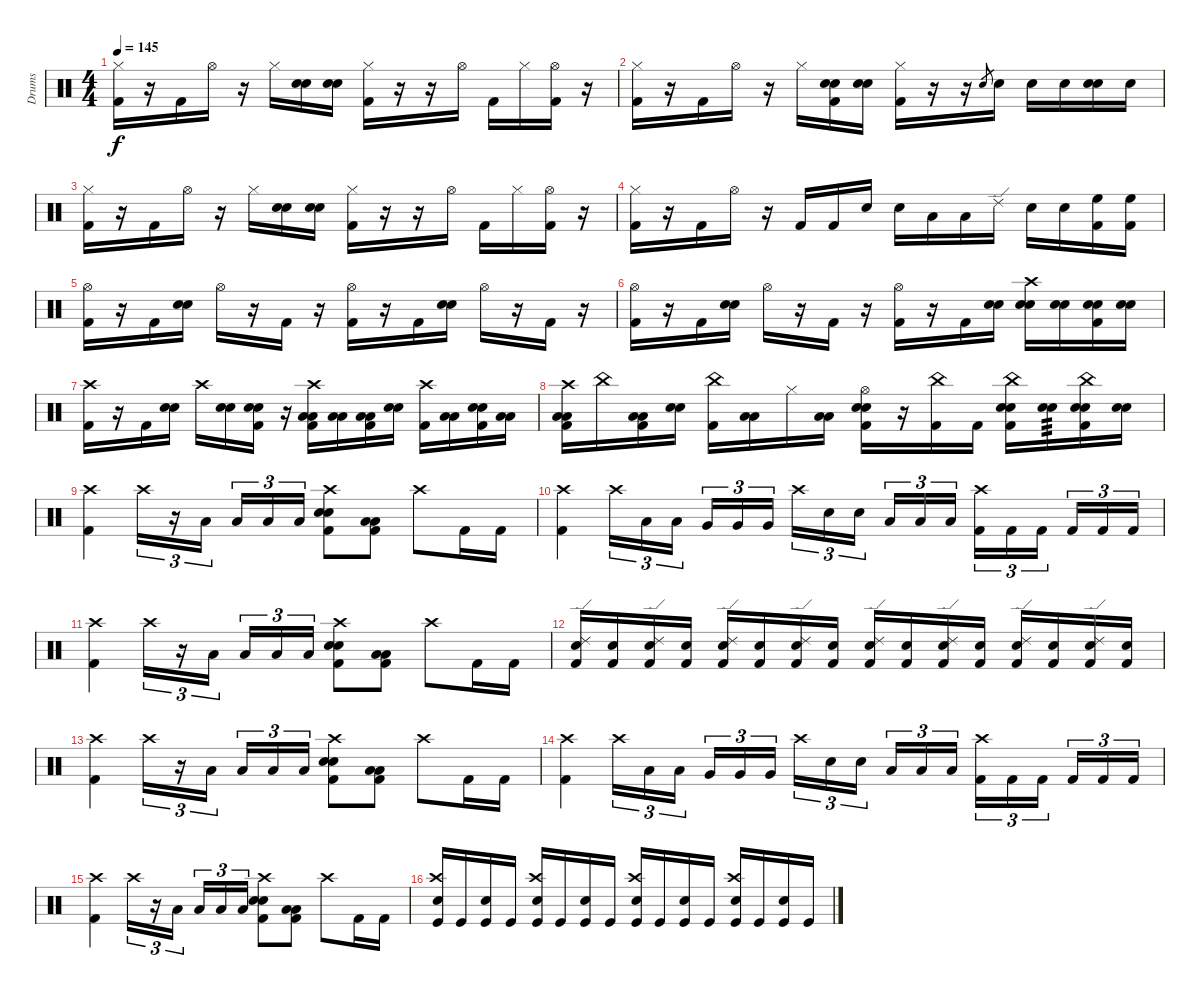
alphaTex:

\track ("Drums" "Drums") {instrument percussion}
\staff {score}
\articulation defaults
\ts (4 4)
\tempo 145
\clef neutral
\ks c
("Hi-Hat (closed)" "Kick (hit) 2").16{dy f} r.16 "Kick (hit) 2".16 "Hi-Hat (open)".16 r.16 "Hi-Hat (closed)".16 ("Electric Snare (hit)" "Electric Snare (hit)").16 ("Electric Snare (hit)" "Electric Snare (hit)").16 ("Hi-Hat (closed)" "Kick (hit) 2").16 r.16 r.16 "Hi-Hat (open)".16 "Kick (hit) 2".16 "Hi-Hat (closed)".16 ("Hi-Hat (open)" "Kick (hit) 2").16 r.16 |
("Hi-Hat (closed)" "Kick (hit) 2").16 r.16 "Kick (hit) 2".16 "Hi-Hat (open)".16 r.16 "Hi-Hat (closed)".16 ("Electric Snare (hit)" "Electric Snare (hit)" "Kick (hit) 2").16 ("Electric Snare (hit)" "Electric Snare (hit)").16 ("Hi-Hat (closed)" "Kick (hit) 2").16 r.16 r.16 "Electric Snare (hit)".8{gr} "Electric Snare (hit)".16 "Electric Snare (hit)".16 "Electric Snare (hit)".16 ("Electric Snare (hit)" "Electric Snare (hit)").16 "Electric Snare (hit)".16 |
("Hi-Hat (closed)" "Kick (hit) 2").16 r.16 "Kick (hit) 2".16 "Hi-Hat (open)".16 r.16 "Hi-Hat (closed)".16 ("Electric Snare (hit)" "Electric Snare (hit)").16 ("Electric Snare (hit)" "Electric Snare (hit)").16 ("Hi-Hat (closed)" "Kick (hit) 2").16 r.16 r.16 "Hi-Hat (open)".16 "Kick (hit) 2".16 "Hi-Hat (closed)".16 ("Hi-Hat (open)" "Kick (hit) 2").16 r.16 |
("Hi-Hat (closed)" "Kick (hit) 2").16 r.16 "Kick (hit) 2".16 "Hi-Hat (open)".16 r.16 "Kick (hit) 2".16 "Kick (hit) 2".16 "Electric Snare (hit)".16 "Electric Snare (hit)".16 "Low Floor Tom (hit)".16 "Low Tom (hit)".16 "Ride (edge) 2".16 "Electric Snare (hit)".16 "Electric Snare (hit)".16 ("High Floor Tom (hit)" "Kick (hit) 2").16 ("High Floor Tom (hit)" "Kick (hit) 2").16 |
("Hi-Hat (open)" "Kick (hit) 2").16 r.16 "Kick (hit) 2".16 ("Electric Snare (hit)" "Electric Snare (hit)").16 "Hi-Hat (open)".16 r.16 "Kick (hit) 2".16 r.16 ("Hi-Hat (open)" "Kick (hit) 2").16 r.16 "Kick (hit) 2".16 ("Electric Snare (hit)" "Electric Snare (hit)").16 "Hi-Hat (open)".16 r.16 "Kick (hit) 2".16 r.16 |
("Hi-Hat (open)" "Kick (hit) 2").16 r.16 "Kick (hit) 2".16 ("Electric Snare (hit)" "Electric Snare (hit)").16 "Hi-Hat (open)".16 r.16 "Kick (hit) 2".16 r.16 ("Hi-Hat (open)" "Kick (hit) 2").16 r.16 "Kick (hit) 2".16 ("Electric Snare (hit)" "Electric Snare (hit)").16 ("Crash high (hit)" "Electric Snare (hit)" "Electric Snare (hit)").16 ("Electric Snare (hit)" "Electric Snare (hit)").16 ("Electric Snare (hit)" "Electric Snare (hit)" "Kick (hit) 2").16 ("Electric Snare (hit)" "Electric Snare (hit)").16 |
("Crash high (hit)" "Kick (hit) 2").16 r.16 "Kick (hit) 2".16 ("Electric Snare (hit)" "Electric Snare (hit)").16 "Crash high (hit)".16 ("Electric Snare (hit)" "Electric Snare (hit)").16 ("Electric Snare (hit)" "Electric Snare (hit)" "Kick (hit) 2").16 r.16 ("Crash high (hit)" "Low Floor Tom (hit)" "Low Floor Tom (hit)" "Kick (hit) 2").16 ("Low Tom (hit)" "Low Tom (hit)").16 ("Low Floor Tom (hit)" "Low Floor Tom (hit)" "Kick (hit) 2").16 ("Electric Snare (hit)" "Electric Snare (hit)").16 ("Crash high (hit)" "Kick (hit) 2").16 ("Low Floor Tom (hit)" "Low Floor Tom (hit)").16 ("Electric Snare (hit)" "Electric Snare (hit)" "Kick (hit) 2").16 ("Low Floor Tom (hit)" "Low Floor Tom (hit)").16 |
("Crash high (hit)" "Low Floor Tom (hit)" "Low Floor Tom (hit)" "Kick (hit) 2").16 "China (hit)".16 ("Low Floor Tom (hit)" "Low Floor Tom (hit)" "Kick (hit) 2").16 ("Electric Snare (hit)" "Electric Snare (hit)").16 ("China (hit)" "Kick (hit) 2").16 ("Low Floor Tom (hit)" "Low Floor Tom (hit)").16 "Hi-Hat (closed)".16 ("Low Floor Tom (hit)" "Low Floor Tom (hit)").16 ("Hi-Hat (open)" "Electric Snare (hit)" "Electric Snare (hit)" "Kick (hit) 2").16 r.16 ("China (hit)" "Kick (hit) 2").16 "Kick (hit) 2".16 ("China (hit)" "Electric Snare (hit)" "Electric Snare (hit)" "Kick (hit) 2").16 ("Electric Snare (hit)" "Electric Snare (hit)").16{tp 3} ("China (hit)" "Electric Snare (hit)" "Electric Snare (hit)" "Kick (hit) 2").16 ("Electric Snare (hit)" "Electric Snare (hit)").16 |
("Crash high (hit)" "Kick (hit) 2").4 "Crash high (hit)".16{tu (3 2)} r.16{tu (3 2)} "Low Tom (hit)".16{tu (3 2) beam splitsecondary} "Low Floor Tom (hit)".16{tu (3 2)} "Low Floor Tom (hit)".16{tu (3 2)} "Low Floor Tom (hit)".16{tu (3 2)} ("Crash high (hit)" "Electric Snare (hit)" "Electric Snare (hit)" "Kick (hit) 2").8 ("Low Floor Tom (hit)" "Low Floor Tom (hit)" "Kick (hit) 2").8 "Crash high (hit)".8 "Kick (hit) 2".16 "Kick (hit) 2".16 |
("Crash high (hit)" "Kick (hit) 2").4 "Crash high (hit)".16{tu (3 2)} "Low Tom (hit)".16{tu (3 2)} "Low Tom (hit)".16{tu (3 2) beam splitsecondary} "Very Low Tom (hit)".16{tu (3 2)} "Very Low Tom (hit)".16{tu (3 2)} "Very Low Tom (hit)".16{tu (3 2)} "Crash high (hit)".16{tu (3 2)} "Electric Snare (hit)".16{tu (3 2)} "Electric Snare (hit)".16{tu (3 2) beam splitsecondary} "Low Floor Tom (hit)".16{tu (3 2)} "Low Floor Tom (hit)".16{tu (3 2)} "Low Floor Tom (hit)".16{tu (3 2)} ("Crash high (hit)" "Kick (hit) 2").16{tu (3 2)} "Kick (hit) 2".16{tu (3 2)} "Kick (hit) 2".16{tu (3 2) beam splitsecondary} "Kick (hit) 2".16{tu (3 2)} "Kick (hit) 2".16{tu (3 2)} "Kick (hit) 2".16{tu (3 2)} |
("Crash high (hit)" "Kick (hit) 2").4 "Crash high (hit)".16{tu (3 2)} r.16{tu (3 2)} "Low Tom (hit)".16{tu (3 2) beam splitsecondary} "Low Floor Tom (hit)".16{tu (3 2)} "Low Floor Tom (hit)".16{tu (3 2)} "Low Floor Tom (hit)".16{tu (3 2)} ("Crash high (hit)" "Electric Snare (hit)" "Electric Snare (hit)" "Kick (hit) 2").8 ("Low Floor Tom (hit)" "Low Floor Tom (hit)" "Kick (hit) 2").8 "Crash high (hit)".8 "Kick (hit) 2".16 "Kick (hit) 2".16 |
("Ride (edge) 2" "Electric Snare (hit)" "Kick (hit) 2").16 ("Electric Snare (hit)" "Kick (hit) 2").16 ("Ride (edge) 2" "Electric Snare (hit)" "Kick (hit) 2").16 ("Electric Snare (hit)" "Kick (hit) 2").16 ("Ride (edge) 2" "Electric Snare (hit)" "Kick (hit) 2").16 ("Electric Snare (hit)" "Kick (hit) 2").16 ("Ride (edge) 2" "Electric Snare (hit)" "Kick (hit) 2").16 ("Electric Snare (hit)" "Kick (hit) 2").16 ("Ride (edge) 2" "Electric Snare (hit)" "Kick (hit) 2").16 ("Electric Snare (hit)" "Kick (hit) 2").16 ("Ride (edge) 2" "Electric Snare (hit)" "Kick (hit) 2").16 ("Electric Snare (hit)" "Kick (hit) 2").16 ("Ride (edge) 2" "Electric Snare (hit)" "Kick (hit) 2").16 ("Electric Snare (hit)" "Kick (hit) 2").16 ("Ride (edge) 2" "Electric Snare (hit)" "Kick (hit) 2").16 ("Electric Snare (hit)" "Kick (hit) 2").16 |
("Crash high (hit)" "Kick (hit) 2").4 "Crash high (hit)".16{tu (3 2)} r.16{tu (3 2)} "Low Tom (hit)".16{tu (3 2) beam splitsecondary} "Low Floor Tom (hit)".16{tu (3 2)} "Low Floor Tom (hit)".16{tu (3 2)} "Low Floor Tom (hit)".16{tu (3 2)} ("Crash high (hit)" "Electric Snare (hit)" "Electric Snare (hit)" "Kick (hit) 2").8 ("Low Floor Tom (hit)" "Low Floor Tom (hit)" "Kick (hit) 2").8 "Crash high (hit)".8 "Kick (hit) 2".16 "Kick (hit) 2".16 |
("Crash high (hit)" "Kick (hit) 2").4 "Crash high (hit)".16{tu (3 2)} "Low Tom (hit)".16{tu (3 2)} "Low Tom (hit)".16{tu (3 2) beam splitsecondary} "Very Low Tom (hit)".16{tu (3 2)} "Very Low Tom (hit)".16{tu (3 2)} "Very Low Tom (hit)".16{tu (3 2)} "Crash high (hit)".16{tu (3 2)} "Electric Snare (hit)".16{tu (3 2)} "Electric Snare (hit)".16{tu (3 2) beam splitsecondary} "Low Floor Tom (hit)".16{tu (3 2)} "Low Floor Tom (hit)".16{tu (3 2)} "Low Floor Tom (hit)".16{tu (3 2)} ("Crash high (hit)" "Kick (hit) 2").16{tu (3 2)} "Kick (hit) 2".16{tu (3 2)} "Kick (hit) 2".16{tu (3 2) beam splitsecondary} "Kick (hit) 2".16{tu (3 2)} "Kick (hit) 2".16{tu (3 2)} "Kick (hit) 2".16{tu (3 2)} |
("Crash high (hit)" "Kick (hit) 2").4 "Crash high (hit)".16{tu (3 2)} r.16{tu (3 2)} "Low Tom (hit)".16{tu (3 2) beam splitsecondary} "Low Floor Tom (hit)".16{tu (3 2)} "Low Floor Tom (hit)".16{tu (3 2)} "Low Floor Tom (hit)".16{tu (3 2)} ("Crash high (hit)" "Electric Snare (hit)" "Electric Snare (hit)" "Kick (hit) 2").8 ("Low Floor Tom (hit)" "Low Floor Tom (hit)" "Kick (hit) 2").8 "Crash high (hit)".8 "Kick (hit) 2".16 "Kick (hit) 2".16 |
("Crash high (hit)" "Electric Snare (hit)" "Kick (hit)").16 "Kick (hit)".16 ("Electric Snare (hit)" "Kick (hit)").16 "Kick (hit)".16 ("Crash high (hit)" "Electric Snare (hit)" "Kick (hit)").16 "Kick (hit)".16 ("Electric Snare (hit)" "Kick (hit)").16 "Kick (hit)".16 ("Crash high (hit)" "Electric Snare (hit)" "Kick (hit)").16 "Kick (hit)".16 ("Electric Snare (hit)" "Kick (hit)").16 "Kick (hit)".16 ("Crash high (hit)" "Electric Snare (hit)" "Kick (hit)").16 "Kick (hit)".16 ("Electric Snare (hit)" "Kick (hit)").16 "Kick (hit)".16
